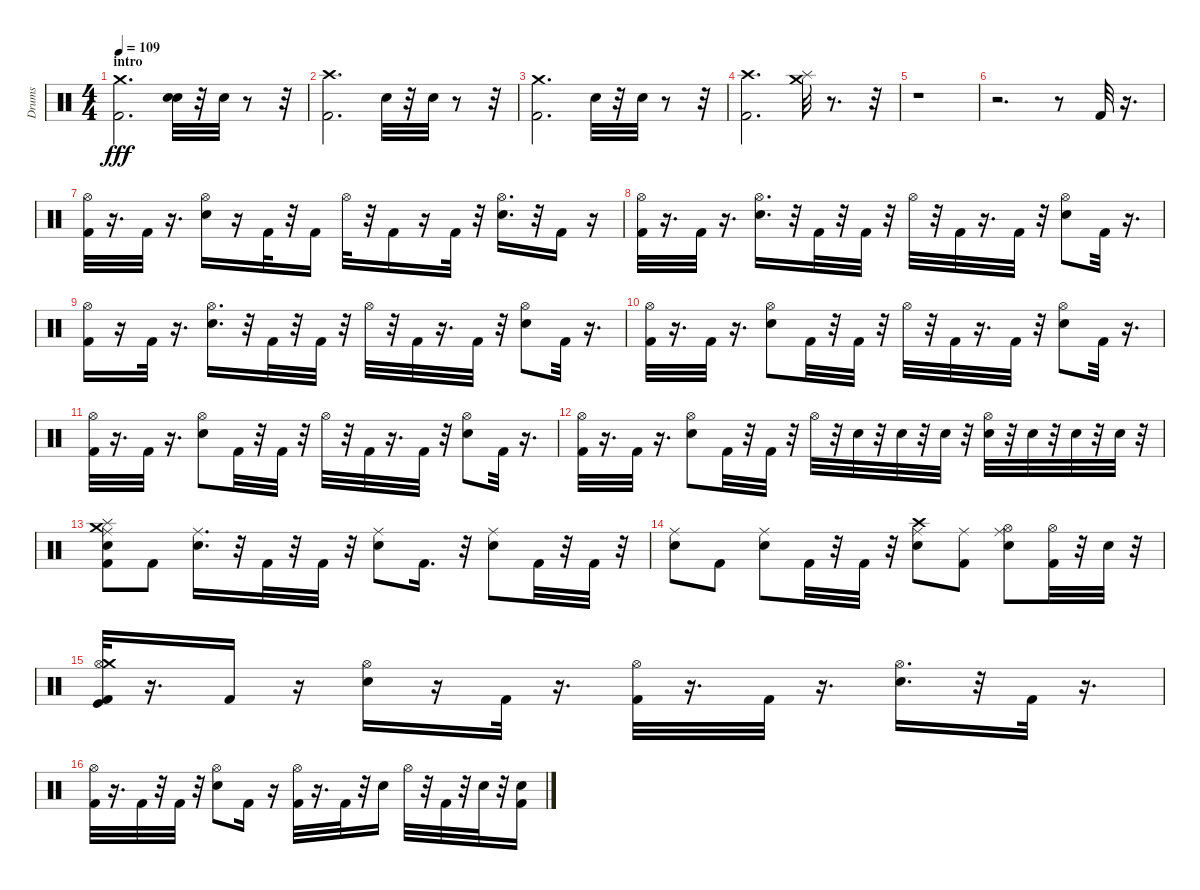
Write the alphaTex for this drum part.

\track ("Drums" "Drums") {instrument percussion}
\staff {score}
\articulation defaults
\ts (4 4)
\section ("" "intro")
\tempo 109
\clef neutral
\ks c
("Kick (hit) 2" "Crash medium (hit)").2{d dy fff} ("Snare (hit) 2" "Electric Snare (hit)").32 r.32 "Snare (hit) 2".32 r.8 r.32 |
("Kick (hit) 2" "Crash high (hit)").2{d} "Snare (hit) 2".32 r.32 "Snare (hit) 2".32 r.8 r.32 |
("Kick (hit) 2" "Crash medium (hit)").2{d} "Snare (hit) 2".32 r.32 "Snare (hit) 2".32 r.8 r.32 |
("Kick (hit) 2" "Crash high (hit)").2{d} ("Splash (hit)" "Crash medium (hit)").32 r.8{d} r.32 |
r.1 |
r.2{d} r.8 "Kick (hit) 2".32{volume 15 balance 8} r.16{d} |
("Kick (hit) 2" "Hi-Hat (open)").32 r.16{d} "Kick (hit) 2".32 r.16{d} ("Snare (hit) 2" "Hi-Hat (open)").16 r.16 "Kick (hit) 2".32 r.32 "Kick (hit) 2".16 "Hi-Hat (open)".32 r.32 "Kick (hit) 2".16 r.16 "Kick (hit) 2".32 r.32 ("Snare (hit) 2" "Hi-Hat (open)").16{d} r.32 "Kick (hit) 2".16 r.16 |
("Kick (hit) 2" "Hi-Hat (open)").32 r.16{d} "Kick (hit) 2".32 r.16{d} ("Snare (hit) 2" "Hi-Hat (open)").16{d} r.32 "Kick (hit) 2".32 r.32 "Kick (hit) 2".32 r.32 "Hi-Hat (open)".32 r.32 "Kick (hit) 2".32 r.16{d} "Kick (hit) 2".32 r.32 ("Snare (hit) 2" "Hi-Hat (open)").8 "Kick (hit) 2".32 r.16{d} |
("Kick (hit) 2" "Hi-Hat (open)").16 r.16 "Kick (hit) 2".32 r.16{d} ("Snare (hit) 2" "Hi-Hat (open)").16{d} r.32 "Kick (hit) 2".32 r.32 "Kick (hit) 2".32 r.32 "Hi-Hat (open)".32 r.32 "Kick (hit) 2".32 r.16{d} "Kick (hit) 2".32 r.32 ("Snare (hit) 2" "Hi-Hat (open)").8 "Kick (hit) 2".32 r.16{d} |
("Kick (hit) 2" "Hi-Hat (open)").32 r.16{d} "Kick (hit) 2".32 r.16{d} ("Snare (hit) 2" "Hi-Hat (open)").8 "Kick (hit) 2".32 r.32 "Kick (hit) 2".32 r.32 "Hi-Hat (open)".32 r.32 "Kick (hit) 2".32 r.16{d} "Kick (hit) 2".32 r.32 ("Snare (hit) 2" "Hi-Hat (open)").8 "Kick (hit) 2".32 r.16{d} |
("Kick (hit) 2" "Hi-Hat (open)").32 r.16{d} "Kick (hit) 2".32 r.16{d} ("Snare (hit) 2" "Hi-Hat (open)").8 "Kick (hit) 2".32 r.32 "Kick (hit) 2".32 r.32 "Hi-Hat (open)".32 r.32 "Kick (hit) 2".32 r.16{d} "Kick (hit) 2".32 r.32 ("Snare (hit) 2" "Hi-Hat (open)").8 "Kick (hit) 2".32 r.16{d} |
("Kick (hit) 2" "Hi-Hat (open)").32 r.16{d} "Kick (hit) 2".32 r.16{d} ("Snare (hit) 2" "Hi-Hat (open)").8 "Kick (hit) 2".32 r.32 "Kick (hit) 2".32 r.32 "Hi-Hat (open)".32 r.32 "Snare (hit) 2".32 r.32 "Snare (hit) 2".32 r.32 "Snare (hit) 2".32 r.32 ("Snare (hit) 2" "Hi-Hat (open)").32 r.32 "Snare (hit) 2".32 r.32 "Snare (hit) 2".32 r.32 "Snare (hit) 2".32 r.32 |
("Kick (hit) 2" "Snare (hit) 2" "Ride (middle)" "Splash (hit)" "Crash medium (hit)").8 "Kick (hit) 2".8 ("Snare (hit) 2" "Ride (middle)").16{d} r.32 "Kick (hit) 2".32 r.32 "Kick (hit) 2".32 r.32 ("Snare (hit) 2" "Ride (middle)").8 "Kick (hit) 2".16{d} r.32 ("Snare (hit) 2" "Ride (middle)").8 "Kick (hit) 2".32 r.32 "Kick (hit) 2".32 r.32 |
("Snare (hit) 2" "Ride (middle)").8 "Kick (hit) 2".8 ("Snare (hit) 2" "Ride (middle)").8 "Kick (hit) 2".32 r.32 "Kick (hit) 2".32 r.32 ("Snare (hit) 2" "Crash high (hit)" "Ride (middle)").8 ("Kick (hit) 2" "Ride (middle)").8 ("Snare (hit) 2" "Hi-Hat (open)" "Ride (middle)").8 ("Kick (hit) 2" "Hi-Hat (open)").32 r.32 "Snare (hit) 2".32 r.32 |
("Kick (hit)" "Kick (hit) 2" "Hi-Hat (open)" "Crash medium (hit)").32 r.16{d} "Kick (hit) 2".16 r.16 ("Snare (hit) 2" "Hi-Hat (open)").16 r.16 "Kick (hit) 2".32 r.16{d} ("Kick (hit) 2" "Hi-Hat (open)").32 r.16{d} "Kick (hit) 2".32 r.16{d} ("Snare (hit) 2" "Hi-Hat (open)").16{d} r.32 "Kick (hit) 2".32 r.16{d} |
("Kick (hit) 2" "Hi-Hat (open)").32 r.16{d} "Kick (hit) 2".32 r.32 "Kick (hit) 2".32 r.32 ("Snare (hit) 2" "Hi-Hat (open)").8 "Kick (hit) 2".16 r.16 ("Kick (hit) 2" "Hi-Hat (open)").32 r.16{d} "Kick (hit) 2".32 r.32 "Snare (hit) 2".16 "Hi-Hat (open)".32 r.32 "Kick (hit) 2".32 r.32 "Snare (hit) 2".32 r.32 ("Kick (hit) 2" "Snare (hit) 2").16
